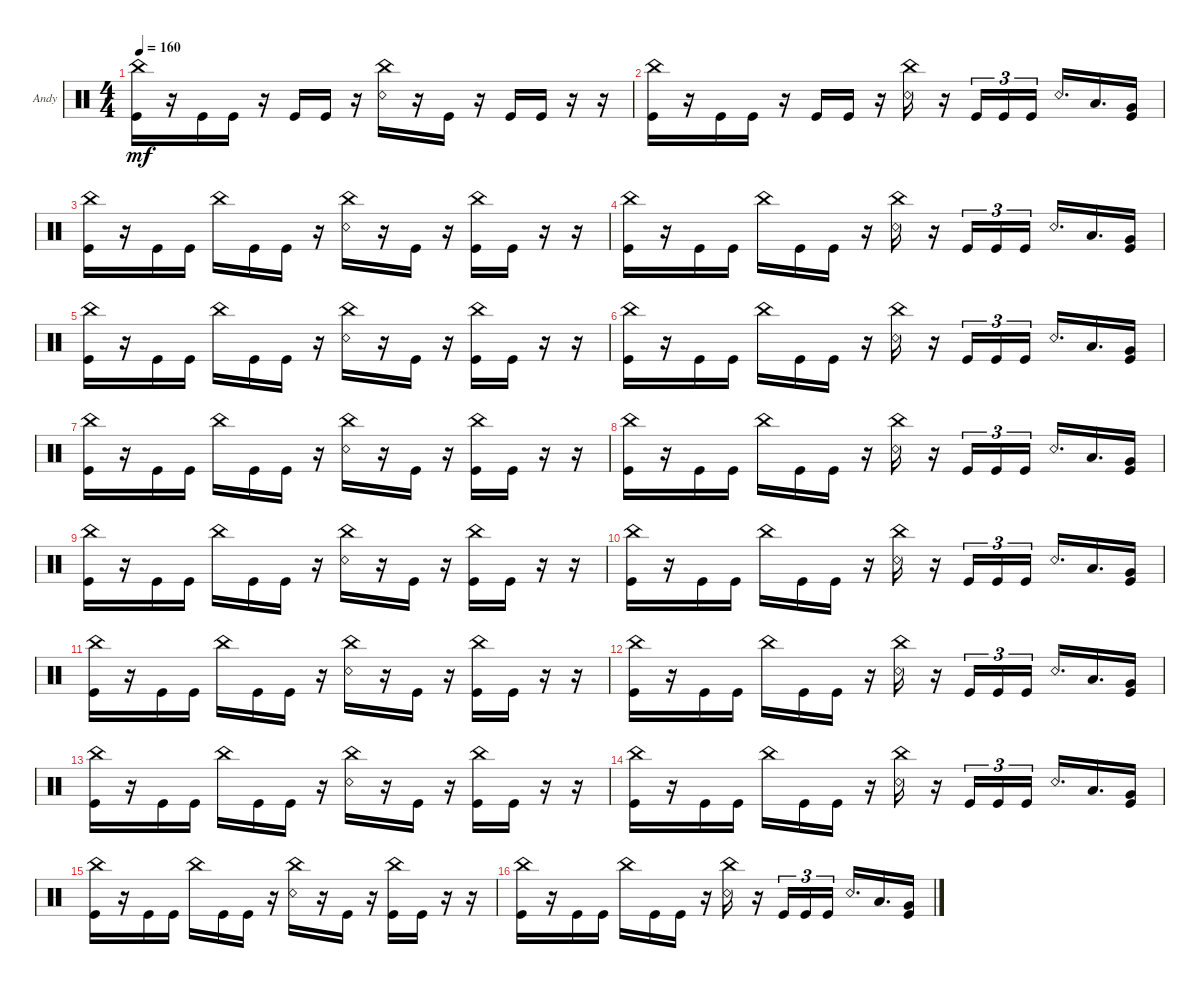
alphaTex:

\defaultSystemsLayout 4
\bracketExtendMode groupsimilarinstruments
\firstSystemTrackNameOrientation horizontal
\otherSystemsTrackNameOrientation horizontal
\track ("Drums" "Andy") {instrument percussion}
\staff {score}
\articulation defaults
\ts (4 4)
\tempo 160
\clef neutral
\ks c
("Kick (hit)" "China (hit)").16{dy mf} r.16 "Kick (hit)".16 "Kick (hit)".16 r.16 "Kick (hit)".16 "Kick (hit)".16 r.16 ("Snare (rim shot)" "China (hit)").16 r.16 "Kick (hit)".16 r.16 "Kick (hit)".16 "Kick (hit)".16 r.16 r.16 |
("Kick (hit)" "China (hit)").16 r.16 "Kick (hit)".16 "Kick (hit)".16 r.16 "Kick (hit)".16 "Kick (hit)".16 r.16 ("Snare (rim shot)" "China (hit)").16 r.16 "Kick (hit)".16{tu (3 2)} "Kick (hit)".16{tu (3 2)} "Kick (hit)".16{tu (3 2)} "Snare (rim shot)".16{d} "Low Tom (hit)".16{d} ("Kick (hit)" "Very Low Tom (hit)").16 |
("Kick (hit)" "China (hit)").16 r.16 "Kick (hit)".16 "Kick (hit)".16 "China (hit)".16 "Kick (hit)".16 "Kick (hit)".16 r.16 ("Snare (rim shot)" "China (hit)").16 r.16 "Kick (hit)".16 r.16 ("Kick (hit)" "China (hit)").16 "Kick (hit)".16 r.16 r.16 |
("Kick (hit)" "China (hit)").16 r.16 "Kick (hit)".16 "Kick (hit)".16 "China (hit)".16 "Kick (hit)".16 "Kick (hit)".16 r.16 ("Snare (rim shot)" "China (hit)").16 r.16 "Kick (hit)".16{tu (3 2)} "Kick (hit)".16{tu (3 2)} "Kick (hit)".16{tu (3 2)} "Snare (rim shot)".16{d} "Low Tom (hit)".16{d} ("Kick (hit)" "Very Low Tom (hit)").16 |
("Kick (hit)" "China (hit)").16 r.16 "Kick (hit)".16 "Kick (hit)".16 "China (hit)".16 "Kick (hit)".16 "Kick (hit)".16 r.16 ("Snare (rim shot)" "China (hit)").16 r.16 "Kick (hit)".16 r.16 ("Kick (hit)" "China (hit)").16 "Kick (hit)".16 r.16 r.16 |
("Kick (hit)" "China (hit)").16 r.16 "Kick (hit)".16 "Kick (hit)".16 "China (hit)".16 "Kick (hit)".16 "Kick (hit)".16 r.16 ("Snare (rim shot)" "China (hit)").16 r.16 "Kick (hit)".16{tu (3 2)} "Kick (hit)".16{tu (3 2)} "Kick (hit)".16{tu (3 2)} "Snare (rim shot)".16{d} "Low Tom (hit)".16{d} ("Kick (hit)" "Very Low Tom (hit)").16 |
("Kick (hit)" "China (hit)").16 r.16 "Kick (hit)".16 "Kick (hit)".16 "China (hit)".16 "Kick (hit)".16 "Kick (hit)".16 r.16 ("Snare (rim shot)" "China (hit)").16 r.16 "Kick (hit)".16 r.16 ("Kick (hit)" "China (hit)").16 "Kick (hit)".16 r.16 r.16 |
("Kick (hit)" "China (hit)").16 r.16 "Kick (hit)".16 "Kick (hit)".16 "China (hit)".16 "Kick (hit)".16 "Kick (hit)".16 r.16 ("Snare (rim shot)" "China (hit)").16 r.16 "Kick (hit)".16{tu (3 2)} "Kick (hit)".16{tu (3 2)} "Kick (hit)".16{tu (3 2)} "Snare (rim shot)".16{d} "Low Tom (hit)".16{d} ("Kick (hit)" "Very Low Tom (hit)").16 |
("Kick (hit)" "China (hit)").16 r.16 "Kick (hit)".16 "Kick (hit)".16 "China (hit)".16 "Kick (hit)".16 "Kick (hit)".16 r.16 ("Snare (rim shot)" "China (hit)").16 r.16 "Kick (hit)".16 r.16 ("Kick (hit)" "China (hit)").16 "Kick (hit)".16 r.16 r.16 |
("Kick (hit)" "China (hit)").16 r.16 "Kick (hit)".16 "Kick (hit)".16 "China (hit)".16 "Kick (hit)".16 "Kick (hit)".16 r.16 ("Snare (rim shot)" "China (hit)").16 r.16 "Kick (hit)".16{tu (3 2)} "Kick (hit)".16{tu (3 2)} "Kick (hit)".16{tu (3 2)} "Snare (rim shot)".16{d} "Low Tom (hit)".16{d} ("Kick (hit)" "Very Low Tom (hit)").16 |
("Kick (hit)" "China (hit)").16 r.16 "Kick (hit)".16 "Kick (hit)".16 "China (hit)".16 "Kick (hit)".16 "Kick (hit)".16 r.16 ("Snare (rim shot)" "China (hit)").16 r.16 "Kick (hit)".16 r.16 ("Kick (hit)" "China (hit)").16 "Kick (hit)".16 r.16 r.16 |
("Kick (hit)" "China (hit)").16 r.16 "Kick (hit)".16 "Kick (hit)".16 "China (hit)".16 "Kick (hit)".16 "Kick (hit)".16 r.16 ("Snare (rim shot)" "China (hit)").16 r.16 "Kick (hit)".16{tu (3 2)} "Kick (hit)".16{tu (3 2)} "Kick (hit)".16{tu (3 2)} "Snare (rim shot)".16{d} "Low Tom (hit)".16{d} ("Kick (hit)" "Very Low Tom (hit)").16 |
("Kick (hit)" "China (hit)").16 r.16 "Kick (hit)".16 "Kick (hit)".16 "China (hit)".16 "Kick (hit)".16 "Kick (hit)".16 r.16 ("Snare (rim shot)" "China (hit)").16 r.16 "Kick (hit)".16 r.16 ("Kick (hit)" "China (hit)").16 "Kick (hit)".16 r.16 r.16 |
("Kick (hit)" "China (hit)").16 r.16 "Kick (hit)".16 "Kick (hit)".16 "China (hit)".16 "Kick (hit)".16 "Kick (hit)".16 r.16 ("Snare (rim shot)" "China (hit)").16 r.16 "Kick (hit)".16{tu (3 2)} "Kick (hit)".16{tu (3 2)} "Kick (hit)".16{tu (3 2)} "Snare (rim shot)".16{d} "Low Tom (hit)".16{d} ("Kick (hit)" "Very Low Tom (hit)").16 |
("Kick (hit)" "China (hit)").16 r.16 "Kick (hit)".16 "Kick (hit)".16 "China (hit)".16 "Kick (hit)".16 "Kick (hit)".16 r.16 ("Snare (rim shot)" "China (hit)").16 r.16 "Kick (hit)".16 r.16 ("Kick (hit)" "China (hit)").16 "Kick (hit)".16 r.16 r.16 |
("Kick (hit)" "China (hit)").16 r.16 "Kick (hit)".16 "Kick (hit)".16 "China (hit)".16 "Kick (hit)".16 "Kick (hit)".16 r.16 ("Snare (rim shot)" "China (hit)").16 r.16 "Kick (hit)".16{tu (3 2)} "Kick (hit)".16{tu (3 2)} "Kick (hit)".16{tu (3 2)} "Snare (rim shot)".16{d} "Low Tom (hit)".16{d} ("Kick (hit)" "Very Low Tom (hit)").16
